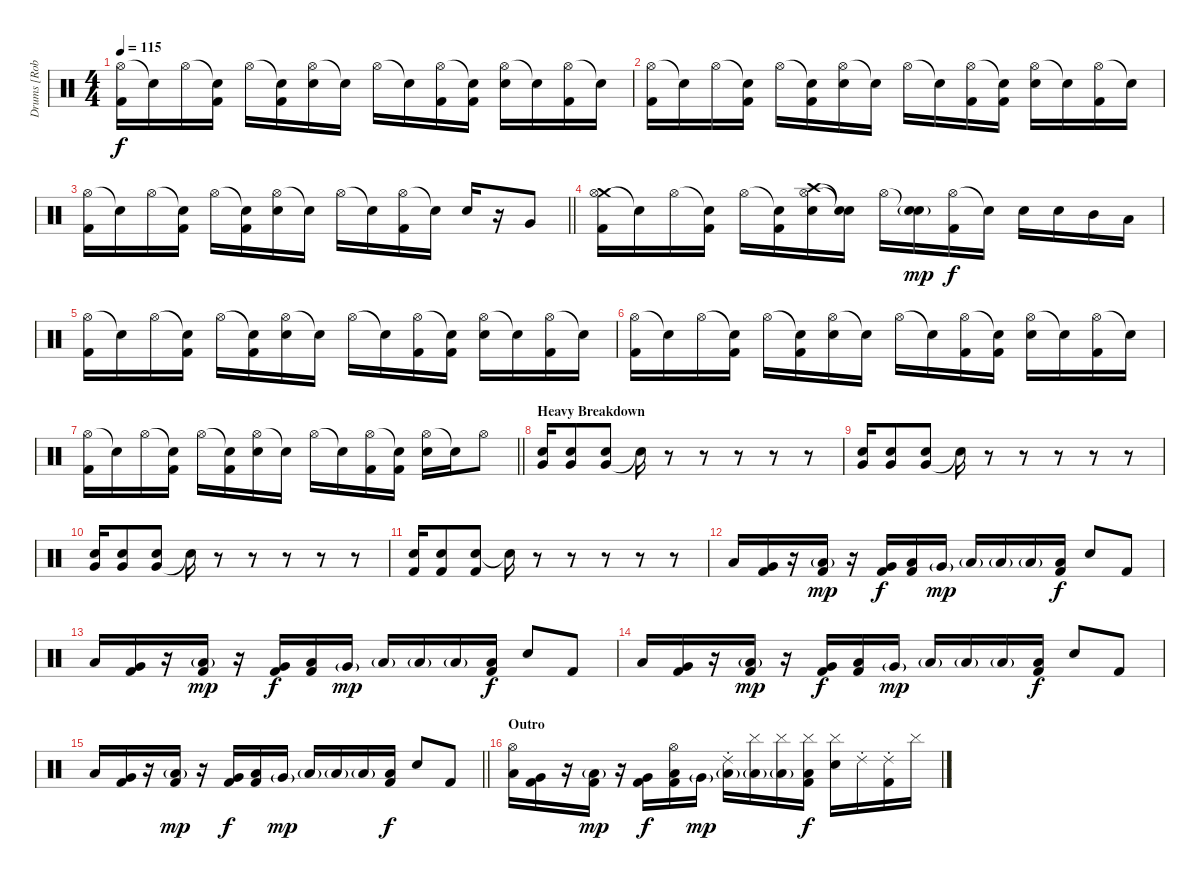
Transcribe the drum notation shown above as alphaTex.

\track ("Drums [Rob Bourdon]" "Drums [Rob") {instrument percussion}
\staff {score}
\articulation defaults
\ts (4 4)
\tempo 115
\clef neutral
\ks c
("Hi-Hat (open)" "Kick (hit) 2").16{dy f} "Snare (hit)"{t}.16 "Hi-Hat (open)".16 ("Snare (hit)"{t} "Kick (hit) 2").16 "Hi-Hat (open)".16 ("Snare (hit)"{t} "Kick (hit) 2").16 ("Hi-Hat (open)" "Electric Snare (hit)").16 "Snare (hit)"{t}.16 "Hi-Hat (open)".16 "Snare (hit)"{t}.16 ("Hi-Hat (open)" "Kick (hit) 2").16 ("Snare (hit)"{t} "Kick (hit) 2").16 ("Hi-Hat (open)" "Electric Snare (hit)").16 "Snare (hit)"{t}.16 ("Hi-Hat (open)" "Kick (hit) 2").16 "Snare (hit)"{t}.16 |
("Hi-Hat (open)" "Kick (hit) 2").16 "Snare (hit)"{t}.16 "Hi-Hat (open)".16 ("Snare (hit)"{t} "Kick (hit) 2").16 "Hi-Hat (open)".16 ("Snare (hit)"{t} "Kick (hit) 2").16 ("Hi-Hat (open)" "Electric Snare (hit)").16 "Snare (hit)"{t}.16 "Hi-Hat (open)".16 "Snare (hit)"{t}.16 ("Hi-Hat (open)" "Kick (hit) 2").16 ("Snare (hit)"{t} "Kick (hit) 2").16 ("Hi-Hat (open)" "Electric Snare (hit)").16 "Snare (hit)"{t}.16 ("Hi-Hat (open)" "Kick (hit) 2").16 "Snare (hit)"{t}.16 |
\barLineRight lightlight
("Hi-Hat (open)" "Kick (hit) 2").16 "Snare (hit)"{t}.16 "Hi-Hat (open)".16 ("Snare (hit)"{t} "Kick (hit) 2").16 "Hi-Hat (open)".16 ("Snare (hit)"{t} "Kick (hit) 2").16 ("Hi-Hat (open)" "Electric Snare (hit)").16 "Snare (hit)"{t}.16 "Hi-Hat (open)".16 "Snare (hit)"{t}.16 ("Hi-Hat (open)" "Kick (hit) 2").16 "Snare (hit)"{t}.16 "Electric Snare (hit)".16 r.16 "Very Low Tom (hit)".8 |
("Crash medium (hit)" "Hi-Hat (open)" "Kick (hit) 2").16 "Snare (hit)"{t}.16 "Hi-Hat (open)".16 ("Snare (hit)"{t} "Kick (hit) 2").16 "Hi-Hat (open)".16 ("Snare (hit)"{t} "Kick (hit) 2").16 ("Crash high (hit)" "Hi-Hat (open)" "Electric Snare (hit)").16 ("Snare (hit)"{t} "Snare (hit)"{t}).16 "Hi-Hat (open)".16 ("Snare (hit)"{t} "Electric Snare (hit)"{g}).16{dy mp} ("Hi-Hat (open)" "Kick (hit) 2").16{dy f} "Snare (hit)"{t}.16 "Electric Snare (hit)".16 "Electric Snare (hit)".16 "Mid Tom (hit)".16 "Low Tom (hit)".16 |
("Hi-Hat (open)" "Kick (hit) 2").16 "Snare (hit)"{t}.16 "Hi-Hat (open)".16 ("Snare (hit)"{t} "Kick (hit) 2").16 "Hi-Hat (open)".16 ("Snare (hit)"{t} "Kick (hit) 2").16 ("Hi-Hat (open)" "Electric Snare (hit)").16 "Snare (hit)"{t}.16 "Hi-Hat (open)".16 "Snare (hit)"{t}.16 ("Hi-Hat (open)" "Kick (hit) 2").16 ("Snare (hit)"{t} "Kick (hit) 2").16 ("Hi-Hat (open)" "Electric Snare (hit)").16 "Snare (hit)"{t}.16 ("Hi-Hat (open)" "Kick (hit) 2").16 "Snare (hit)"{t}.16 |
("Hi-Hat (open)" "Kick (hit) 2").16 "Snare (hit)"{t}.16 "Hi-Hat (open)".16 ("Snare (hit)"{t} "Kick (hit) 2").16 "Hi-Hat (open)".16 ("Snare (hit)"{t} "Kick (hit) 2").16 ("Hi-Hat (open)" "Electric Snare (hit)").16 "Snare (hit)"{t}.16 "Hi-Hat (open)".16 "Snare (hit)"{t}.16 ("Hi-Hat (open)" "Kick (hit) 2").16 ("Snare (hit)"{t} "Kick (hit) 2").16 ("Hi-Hat (open)" "Electric Snare (hit)").16 "Snare (hit)"{t}.16 ("Hi-Hat (open)" "Kick (hit) 2").16 "Snare (hit)"{t}.16 |
\barLineRight lightlight
("Hi-Hat (open)" "Kick (hit) 2").16 "Snare (hit)"{t}.16 "Hi-Hat (open)".16 ("Snare (hit)"{t} "Kick (hit) 2").16 "Hi-Hat (open)".16 ("Snare (hit)"{t} "Kick (hit) 2").16 ("Hi-Hat (open)" "Electric Snare (hit)").16 "Snare (hit)"{t}.16 "Hi-Hat (open)".16 "Snare (hit)"{t}.16 ("Hi-Hat (open)" "Kick (hit) 2").16 ("Snare (hit)"{t} "Kick (hit) 2").16 ("Hi-Hat (open)" "Electric Snare (hit)").16 "Snare (hit)"{t}.16 "Hi-Hat (open)".8 |
\section ("" "Heavy Breakdown")
("Very Low Tom (hit)" "Electric Snare (hit)").16 ("Very Low Tom (hit)" "Electric Snare (hit)").8 ("Very Low Tom (hit)" "Electric Snare (hit)").8 "Snare (hit)"{t}.16 r.8 r.8 r.8 r.8 r.8 |
("Very Low Tom (hit)" "Electric Snare (hit)").16 ("Very Low Tom (hit)" "Electric Snare (hit)").8 ("Very Low Tom (hit)" "Electric Snare (hit)").8 "Snare (hit)"{t}.16 r.8 r.8 r.8 r.8 r.8 |
("Very Low Tom (hit)" "Electric Snare (hit)").16 ("Very Low Tom (hit)" "Electric Snare (hit)").8 ("Very Low Tom (hit)" "Electric Snare (hit)").8 "Snare (hit)"{t}.16 r.8 r.8 r.8 r.8 r.8 |
("Electric Snare (hit)" "Kick (hit) 2").16 ("Electric Snare (hit)" "Kick (hit) 2").8 ("Electric Snare (hit)" "Kick (hit) 2").8 "Snare (hit)"{t}.16 r.8 r.8 r.8 r.8 r.8 |
"Low Tom (hit)".16 ("Very Low Tom (hit)" "Kick (hit) 2").16 r.16 ("Low Tom (hit)"{g} "Kick (hit) 2").16{dy mp} r.16 ("Very Low Tom (hit)" "Kick (hit) 2").16{dy f} ("Low Tom (hit)" "Kick (hit) 2").16 "Very Low Tom (hit)"{g}.16{dy mp} "Low Tom (hit)"{g}.16 "Low Tom (hit)"{g}.16 "Low Tom (hit)"{g}.16 ("Low Tom (hit)" "Kick (hit) 2").16{dy f} "Electric Snare (hit)".8 "Kick (hit) 2".8 |
"Low Tom (hit)".16 ("Very Low Tom (hit)" "Kick (hit) 2").16 r.16 ("Low Tom (hit)"{g} "Kick (hit) 2").16{dy mp} r.16 ("Very Low Tom (hit)" "Kick (hit) 2").16{dy f} ("Low Tom (hit)" "Kick (hit) 2").16 "Very Low Tom (hit)"{g}.16{dy mp} "Low Tom (hit)"{g}.16 "Low Tom (hit)"{g}.16 "Low Tom (hit)"{g}.16 ("Low Tom (hit)" "Kick (hit) 2").16{dy f} "Electric Snare (hit)".8 "Kick (hit) 2".8 |
"Low Tom (hit)".16 ("Very Low Tom (hit)" "Kick (hit) 2").16 r.16 ("Low Tom (hit)"{g} "Kick (hit) 2").16{dy mp} r.16 ("Very Low Tom (hit)" "Kick (hit) 2").16{dy f} ("Low Tom (hit)" "Kick (hit) 2").16 "Very Low Tom (hit)"{g}.16{dy mp} "Low Tom (hit)"{g}.16 "Low Tom (hit)"{g}.16 "Low Tom (hit)"{g}.16 ("Low Tom (hit)" "Kick (hit) 2").16{dy f} "Electric Snare (hit)".8 "Kick (hit) 2".8 |
\barLineRight lightlight "Low Tom (hit)".16
("Very Low Tom (hit)" "Kick (hit) 2").16 r.16 ("Low Tom (hit)"{g} "Kick (hit) 2").16{dy mp} r.16 ("Very Low Tom (hit)" "Kick (hit) 2").16{dy f} ("Low Tom (hit)" "Kick (hit) 2").16 "Very Low Tom (hit)"{g}.16{dy mp} "Low Tom (hit)"{g}.16 "Low Tom (hit)"{g}.16 "Low Tom (hit)"{g}.16 ("Low Tom (hit)" "Kick (hit) 2").16{dy f} "Electric Snare (hit)".8 "Kick (hit) 2".8 |
\section ("" "Outro")
("Hi-Hat (open)" "Low Tom (hit)").16 ("Very Low Tom (hit)" "Kick (hit) 2").16 r.16 ("Low Tom (hit)"{g} "Kick (hit) 2").16{dy mp} r.16 ("Very Low Tom (hit)" "Kick (hit) 2").16{dy f} ("Hi-Hat (open)" "Low Tom (hit)" "Kick (hit) 2").16 "Very Low Tom (hit)"{g}.16{dy mp} ("Ride (choke) 2" "Low Tom (hit)"{g}).16 ("Cymbal (hit)" "Low Tom (hit)"{g}).16 ("Cymbal (hit)" "Low Tom (hit)"{g}).16 ("Cymbal (hit)" "Low Tom (hit)" "Kick (hit) 2").16{dy f} ("Cymbal (hit)" "Electric Snare (hit)").16 "Ride (choke) 2".16 ("Ride (choke) 2" "Kick (hit) 2").16 "Cymbal (hit)".16
